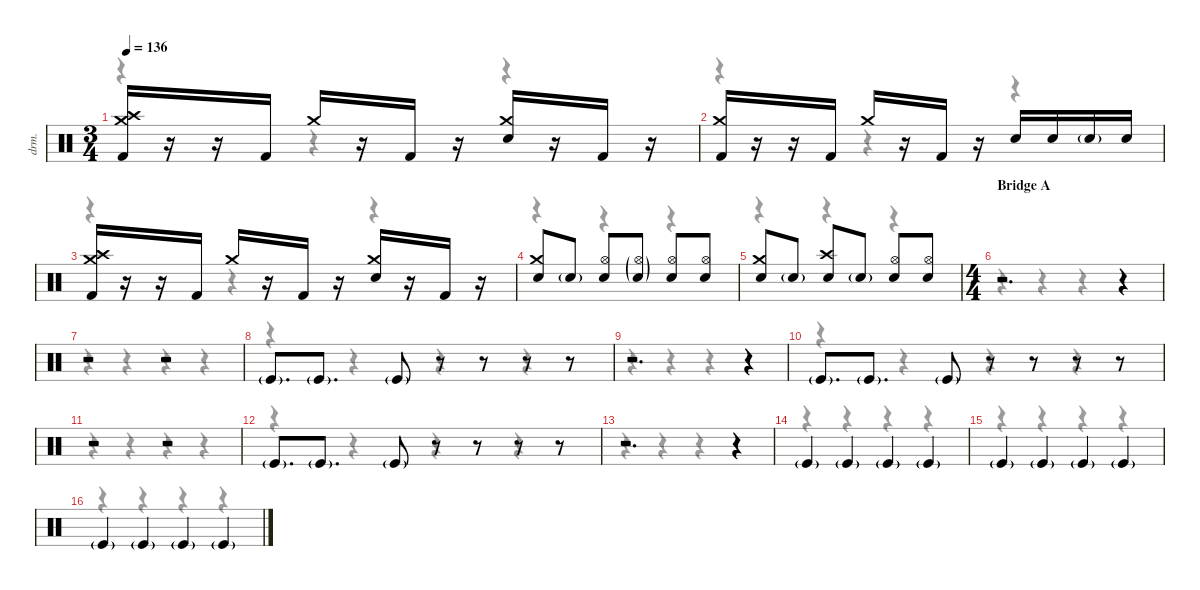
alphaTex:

\defaultSystemsLayout 4
\hideDynamics
\bracketExtendMode nobrackets
\track ("Drums" "drm.") {instrument percussion}
\staff {score}
\articulation defaults
\voice
\ts (3 4)
\tempo 136
\clef neutral
\ks c
("Crash medium (hit)" "Crash high (hit)" "Kick (hit) 2").16{dy f beam Up} r.16{beam Up} r.16{beam Up} "Kick (hit) 2".16{beam Up} "Crash medium (hit)".16{beam Up} r.16{beam Up} "Kick (hit) 2".16{beam Up} r.16{beam Up} ("Crash medium (hit)" "Snare (hit) 2").16{beam Up} r.16{beam Up} "Kick (hit) 2".16{beam Up} r.16{beam Up} |
("Crash medium (hit)" "Kick (hit) 2").16{beam Up} r.16{beam Up} r.16{beam Up} "Kick (hit) 2".16{beam Up} "Crash medium (hit)".16{beam Up} r.16{beam Up} "Kick (hit) 2".16{beam Up} r.16{beam Up} "Snare (hit) 2".16{beam Up} "Snare (hit) 2".16{beam Up} "Snare (hit) 2"{g}.16{beam Up} "Snare (hit) 2".16{beam Up} |
("Crash medium (hit)" "Crash high (hit)" "Kick (hit) 2").16{beam Up} r.16{beam Up} r.16{beam Up} "Kick (hit) 2".16{beam Up} "Crash medium (hit)".16{beam Up} r.16{beam Up} "Kick (hit) 2".16{beam Up} r.16{beam Up} ("Crash medium (hit)" "Snare (hit) 2").16{beam Up} r.16{beam Up} "Kick (hit) 2".16{beam Up} r.16{beam Up} |
("Crash medium (hit)" "Snare (hit) 2").8{beam Up} "Snare (hit) 2"{g}.8{beam Up} ("Hi-Hat (open)" "Snare (hit) 2").8{beam Up} ("Hi-Hat (open)"{g} "Snare (hit) 2"{g}).8{beam Up} ("Hi-Hat (open)" "Snare (hit) 2").8{beam Up} ("Hi-Hat (open)" "Snare (hit) 2").8{beam Up} |
("Crash medium (hit)" "Snare (hit) 2").8{beam Up} "Snare (hit) 2"{g}.8{beam Up} ("Crash high (hit)" "Snare (hit) 2").8{beam Up} "Snare (hit) 2"{g}.8{beam Up} ("Hi-Hat (open)" "Snare (hit) 2").8{beam Up} ("Hi-Hat (open)" "Snare (hit) 2").8{beam Up} |
\ts (4 4)
\beaming (8 2 2 2 2)
\section ("" "Bridge A")
r.2{d beam Up} r.4{beam Up} |
r.2{beam Up} r.2{beam Up} |
"Kick (hit)"{g}.8{d beam Up} "Kick (hit)"{g}.8{d beam Up} "Kick (hit)"{g}.8{beam Up} r.8{beam Up} r.8{beam Up} r.8{beam Up} r.8{beam Up} |
r.2{d beam Up} r.4{beam Up} |
"Kick (hit)"{g}.8{d beam Up} "Kick (hit)"{g}.8{d beam Up} "Kick (hit)"{g}.8{beam Up} r.8{beam Up} r.8{beam Up} r.8{beam Up} r.8{beam Up} |
r.2{beam Up} r.2{beam Up} |
"Kick (hit)"{g}.8{d beam Up} "Kick (hit)"{g}.8{d beam Up} "Kick (hit)"{g}.8{beam Up} r.8{beam Up} r.8{beam Up} r.8{beam Up} r.8{beam Up} |
r.2{d beam Up} r.4{beam Up} |
"Kick (hit)"{g}.4{beam Up} "Kick (hit)"{g}.4{beam Up} "Kick (hit)"{g}.4{beam Up} "Kick (hit)"{g}.4{beam Up} |
"Kick (hit)"{g}.4{beam Up} "Kick (hit)"{g}.4{beam Up} "Kick (hit)"{g}.4{beam Up} "Kick (hit)"{g}.4{beam Up} |
"Kick (hit)"{g}.4{beam Up} "Kick (hit)"{g}.4{beam Up} "Kick (hit)"{g}.4{beam Up} "Kick (hit)"{g}.4{beam Up}
\voice
\clef neutral
\ottava regular
\simile none
\ks c
r.4{dy mf beam Down} r.4{beam Down} r.4{beam Down} |
r.4{beam Down} r.4{beam Down} r.4{beam Down} |
r.4{beam Down} r.4{beam Down} r.4{beam Down} |
r.4{beam Down} r.4{beam Down} r.4{beam Down} |
r.4{beam Down} r.4{beam Down} r.4{beam Down} |
r.4{beam Down} r.4{beam Down} r.4{beam Down} r.4{beam Down} |
r.4{beam Down} r.4{beam Down} r.4{beam Down} r.4{beam Down} |
r.4{beam Down} r.4{beam Down} r.4{beam Down} r.4{beam Down} |
r.4{beam Down} r.4{beam Down} r.4{beam Down} r.4{beam Down} |
r.4{beam Down} r.4{beam Down} r.4{beam Down} r.4{beam Down} |
r.4{beam Down} r.4{beam Down} r.4{beam Down} r.4{beam Down} |
r.4{beam Down} r.4{beam Down} r.4{beam Down} r.4{beam Down} |
r.4{beam Down} r.4{beam Down} r.4{beam Down} r.4{beam Down} |
r.4{beam Down} r.4{beam Down} r.4{beam Down} r.4{beam Down} |
r.4{beam Down} r.4{beam Down} r.4{beam Down} r.4{beam Down} |
r.4{beam Down} r.4{beam Down} r.4{beam Down} r.4{beam Down}
